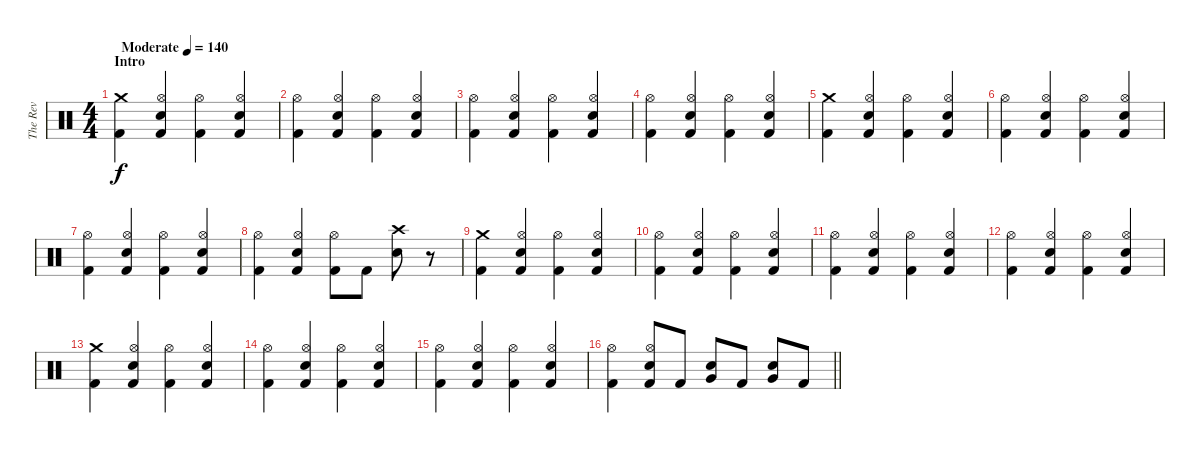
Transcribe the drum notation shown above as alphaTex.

\track ("The Rev" "The Rev") {instrument percussion}
\staff {score}
\articulation defaults
\ts (4 4)
\section ("" "Intro")
\tempo (140 "Moderate")
\clef neutral
\ks c
("Crash medium (hit)" "Kick (hit) 2").4{dy f} ("Hi-Hat (open)" "Electric Snare (hit)" "Kick (hit) 2").4 ("Hi-Hat (open)" "Kick (hit) 2").4 ("Hi-Hat (open)" "Electric Snare (hit)" "Kick (hit) 2").4 |
("Hi-Hat (open)" "Kick (hit) 2").4 ("Hi-Hat (open)" "Electric Snare (hit)" "Kick (hit) 2").4 ("Hi-Hat (open)" "Kick (hit) 2").4 ("Hi-Hat (open)" "Electric Snare (hit)" "Kick (hit) 2").4 |
("Hi-Hat (open)" "Kick (hit) 2").4 ("Hi-Hat (open)" "Electric Snare (hit)" "Kick (hit) 2").4 ("Hi-Hat (open)" "Kick (hit) 2").4 ("Hi-Hat (open)" "Electric Snare (hit)" "Kick (hit) 2").4 |
("Hi-Hat (open)" "Kick (hit) 2").4 ("Hi-Hat (open)" "Electric Snare (hit)" "Kick (hit) 2").4 ("Hi-Hat (open)" "Kick (hit) 2").4 ("Hi-Hat (open)" "Electric Snare (hit)" "Kick (hit) 2").4 |
("Crash medium (hit)" "Kick (hit) 2").4 ("Hi-Hat (open)" "Electric Snare (hit)" "Kick (hit) 2").4 ("Hi-Hat (open)" "Kick (hit) 2").4 ("Hi-Hat (open)" "Electric Snare (hit)" "Kick (hit) 2").4 |
("Hi-Hat (open)" "Kick (hit) 2").4 ("Hi-Hat (open)" "Electric Snare (hit)" "Kick (hit) 2").4 ("Hi-Hat (open)" "Kick (hit) 2").4 ("Hi-Hat (open)" "Electric Snare (hit)" "Kick (hit) 2").4 |
("Hi-Hat (open)" "Kick (hit) 2").4 ("Hi-Hat (open)" "Electric Snare (hit)" "Kick (hit) 2").4 ("Hi-Hat (open)" "Kick (hit) 2").4 ("Hi-Hat (open)" "Electric Snare (hit)" "Kick (hit) 2").4 |
("Hi-Hat (open)" "Kick (hit) 2").4 ("Hi-Hat (open)" "Electric Snare (hit)" "Kick (hit) 2").4 ("Hi-Hat (open)" "Kick (hit) 2").8 "Kick (hit) 2".8 ("Crash high (hit)" "Electric Snare (hit)").8 r.8 |
("Crash medium (hit)" "Kick (hit) 2").4 ("Hi-Hat (open)" "Electric Snare (hit)" "Kick (hit) 2").4 ("Hi-Hat (open)" "Kick (hit) 2").4 ("Hi-Hat (open)" "Electric Snare (hit)" "Kick (hit) 2").4 |
("Hi-Hat (open)" "Kick (hit) 2").4 ("Hi-Hat (open)" "Electric Snare (hit)" "Kick (hit) 2").4 ("Hi-Hat (open)" "Kick (hit) 2").4 ("Hi-Hat (open)" "Electric Snare (hit)" "Kick (hit) 2").4 |
("Hi-Hat (open)" "Kick (hit) 2").4 ("Hi-Hat (open)" "Electric Snare (hit)" "Kick (hit) 2").4 ("Hi-Hat (open)" "Kick (hit) 2").4 ("Hi-Hat (open)" "Electric Snare (hit)" "Kick (hit) 2").4 |
("Hi-Hat (open)" "Kick (hit) 2").4 ("Hi-Hat (open)" "Electric Snare (hit)" "Kick (hit) 2").4 ("Hi-Hat (open)" "Kick (hit) 2").4 ("Hi-Hat (open)" "Electric Snare (hit)" "Kick (hit) 2").4 |
("Crash medium (hit)" "Kick (hit) 2").4 ("Hi-Hat (open)" "Electric Snare (hit)" "Kick (hit) 2").4 ("Hi-Hat (open)" "Kick (hit) 2").4 ("Hi-Hat (open)" "Electric Snare (hit)" "Kick (hit) 2").4 |
("Hi-Hat (open)" "Kick (hit) 2").4 ("Hi-Hat (open)" "Electric Snare (hit)" "Kick (hit) 2").4 ("Hi-Hat (open)" "Kick (hit) 2").4 ("Hi-Hat (open)" "Electric Snare (hit)" "Kick (hit) 2").4 |
("Hi-Hat (open)" "Kick (hit) 2").4 ("Hi-Hat (open)" "Electric Snare (hit)" "Kick (hit) 2").4 ("Hi-Hat (open)" "Kick (hit) 2").4 ("Hi-Hat (open)" "Electric Snare (hit)" "Kick (hit) 2").4 |
\barLineRight lightlight
("Hi-Hat (open)" "Kick (hit) 2").4 ("Hi-Hat (open)" "Electric Snare (hit)" "Kick (hit) 2").8 "Kick (hit) 2".8 ("Electric Snare (hit)" "Very Low Tom (hit)").8 "Kick (hit) 2".8 ("Electric Snare (hit)" "Very Low Tom (hit)").8 "Kick (hit) 2".8
